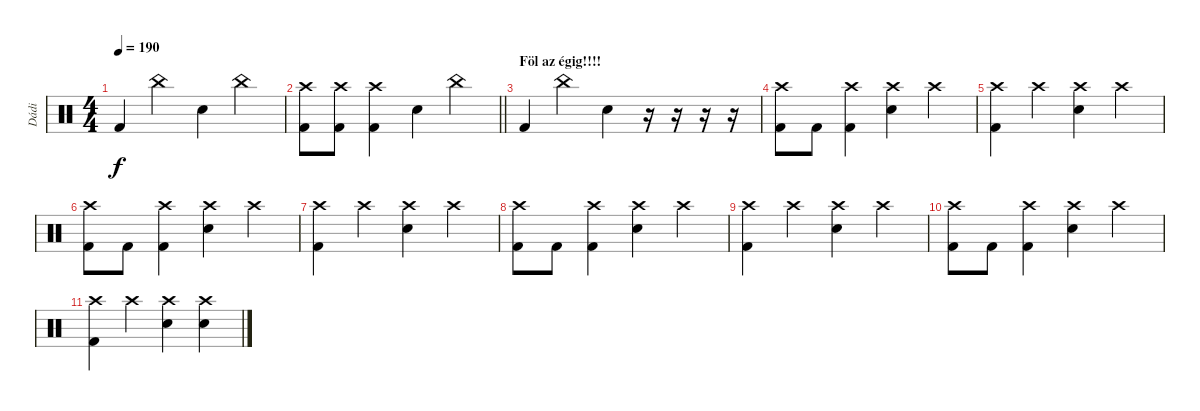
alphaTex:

\track ("Dádi" "Dádi") {instrument percussion}
\staff {score}
\articulation defaults
\ts (4 4)
\tempo 190
\clef neutral
\ks c "Kick (hit) 2".4{dy f} "China (hit)".4 "Electric Snare (hit)".4 "China (hit)".4
|
\barLineRight lightlight
("Kick (hit) 2" "Crash high (hit)").8 ("Kick (hit) 2" "Crash high (hit)").8 ("Kick (hit) 2" "Crash high (hit)").4 "Electric Snare (hit)".4 "China (hit)".4 |
\section ("" "Föl az égig!!!!")
"Kick (hit) 2".4 "China (hit)".4 "Electric Snare (hit)".4 r.16 r.16 r.16 r.16 |
("Kick (hit) 2" "Crash high (hit)").8 "Kick (hit) 2".8 ("Kick (hit) 2" "Crash high (hit)").4 ("Electric Snare (hit)" "Crash high (hit)").4 "Crash high (hit)".4 |
("Crash high (hit)" "Kick (hit) 2").4 "Crash high (hit)".4 ("Crash high (hit)" "Electric Snare (hit)").4 "Crash high (hit)".4 |
("Kick (hit) 2" "Crash high (hit)").8 "Kick (hit) 2".8 ("Kick (hit) 2" "Crash high (hit)").4 ("Crash high (hit)" "Electric Snare (hit)").4 "Crash high (hit)".4 |
("Kick (hit) 2" "Crash high (hit)").4 "Crash high (hit)".4 ("Electric Snare (hit)" "Crash high (hit)").4 "Crash high (hit)".4 |
("Kick (hit) 2" "Crash high (hit)").8 "Kick (hit) 2".8 ("Kick (hit) 2" "Crash high (hit)").4 ("Electric Snare (hit)" "Crash high (hit)").4 "Crash high (hit)".4 |
("Kick (hit) 2" "Crash high (hit)").4 "Crash high (hit)".4 ("Electric Snare (hit)" "Crash high (hit)").4 "Crash high (hit)".4 |
("Kick (hit) 2" "Crash high (hit)").8 "Kick (hit) 2".8 ("Kick (hit) 2" "Crash high (hit)").4 ("Electric Snare (hit)" "Crash high (hit)").4 "Crash high (hit)".4 |
("Kick (hit) 2" "Crash high (hit)").4 "Crash high (hit)".4 ("Electric Snare (hit)" "Crash high (hit)").4 ("Crash high (hit)" "Electric Snare (hit)").4
